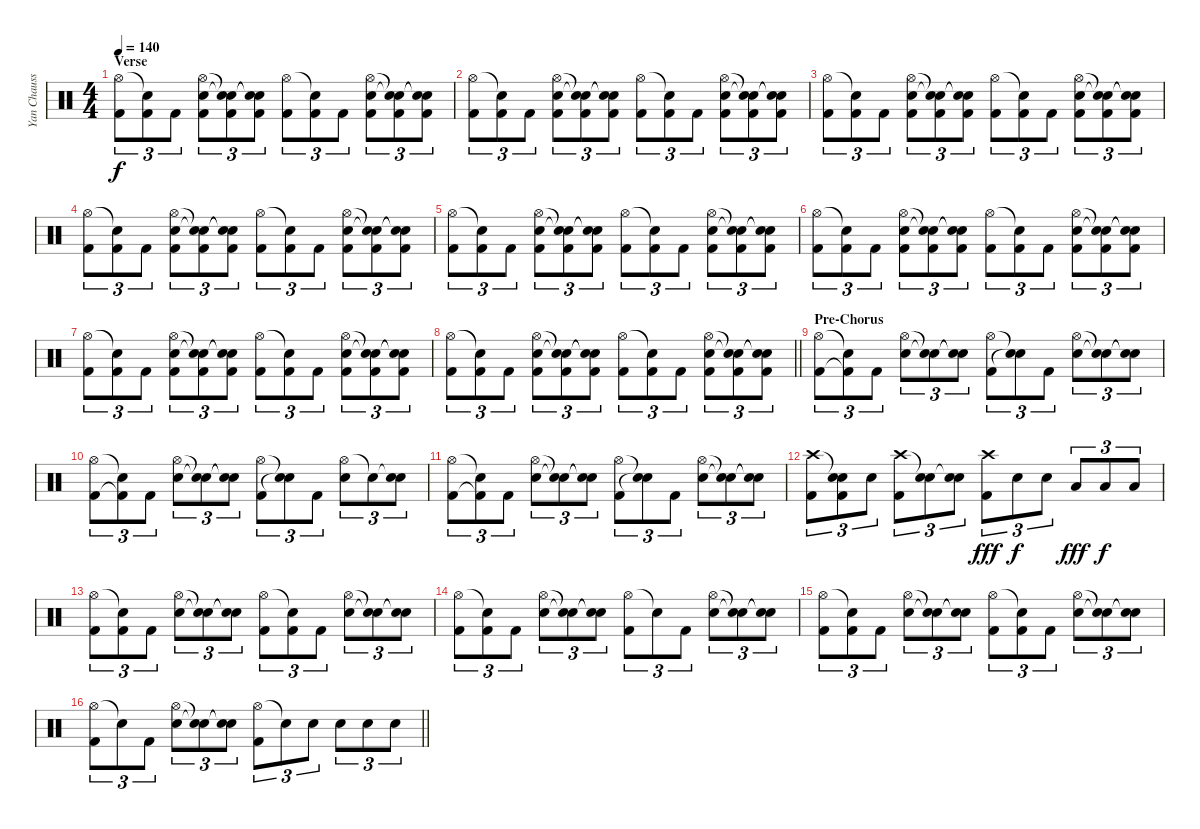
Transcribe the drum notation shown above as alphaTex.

\track ("Yan Chausse" "Yan Chauss") {instrument percussion}
\staff {score}
\articulation defaults
\ts (4 4)
\section ("" "Verse")
\tempo 140
\clef neutral
\ks c
("Hi-Hat (open)" "Kick (hit) 2").8{tu (3 2) dy f} ("Snare (hit)"{t} "Kick (hit) 2").8{tu (3 2)} "Kick (hit) 2".8{tu (3 2)} ("Hi-Hat (open)" "Snare (hit) 2" "Kick (hit) 2").8{tu (3 2)} ("Snare (hit)"{t} "Snare (hit)"{t} "Kick (hit) 2").8{tu (3 2)} ("Snare (hit)"{t} "Snare (hit)"{t} "Kick (hit) 2").8{tu (3 2)} ("Hi-Hat (open)" "Kick (hit) 2").8{tu (3 2)} ("Snare (hit)"{t} "Kick (hit) 2").8{tu (3 2)} "Kick (hit) 2".8{tu (3 2)} ("Hi-Hat (open)" "Snare (hit) 2" "Kick (hit) 2").8{tu (3 2)} ("Snare (hit)"{t} "Snare (hit)"{t} "Kick (hit) 2").8{tu (3 2)} ("Snare (hit)"{t} "Snare (hit)"{t} "Kick (hit) 2").8{tu (3 2)} |
("Hi-Hat (open)" "Kick (hit) 2").8{tu (3 2)} ("Snare (hit)"{t} "Kick (hit) 2").8{tu (3 2)} "Kick (hit) 2".8{tu (3 2)} ("Hi-Hat (open)" "Snare (hit) 2" "Kick (hit) 2").8{tu (3 2)} ("Snare (hit)"{t} "Snare (hit)"{t} "Kick (hit) 2").8{tu (3 2)} ("Snare (hit)"{t} "Snare (hit)"{t} "Kick (hit) 2").8{tu (3 2)} ("Hi-Hat (open)" "Kick (hit) 2").8{tu (3 2)} ("Snare (hit)"{t} "Kick (hit) 2").8{tu (3 2)} "Kick (hit) 2".8{tu (3 2)} ("Hi-Hat (open)" "Snare (hit) 2" "Kick (hit) 2").8{tu (3 2)} ("Snare (hit)"{t} "Snare (hit)"{t} "Kick (hit) 2").8{tu (3 2)} ("Snare (hit)"{t} "Snare (hit)"{t} "Kick (hit) 2").8{tu (3 2)} |
("Hi-Hat (open)" "Kick (hit) 2").8{tu (3 2)} ("Snare (hit)"{t} "Kick (hit) 2").8{tu (3 2)} "Kick (hit) 2".8{tu (3 2)} ("Hi-Hat (open)" "Snare (hit) 2" "Kick (hit) 2").8{tu (3 2)} ("Snare (hit)"{t} "Snare (hit)"{t} "Kick (hit) 2").8{tu (3 2)} ("Snare (hit)"{t} "Snare (hit)"{t} "Kick (hit) 2").8{tu (3 2)} ("Hi-Hat (open)" "Kick (hit) 2").8{tu (3 2)} ("Snare (hit)"{t} "Kick (hit) 2").8{tu (3 2)} "Kick (hit) 2".8{tu (3 2)} ("Hi-Hat (open)" "Snare (hit) 2" "Kick (hit) 2").8{tu (3 2)} ("Snare (hit)"{t} "Snare (hit)"{t} "Kick (hit) 2").8{tu (3 2)} ("Snare (hit)"{t} "Snare (hit)"{t} "Kick (hit) 2").8{tu (3 2)} |
("Hi-Hat (open)" "Kick (hit) 2").8{tu (3 2)} ("Snare (hit)"{t} "Kick (hit) 2").8{tu (3 2)} "Kick (hit) 2".8{tu (3 2)} ("Hi-Hat (open)" "Snare (hit) 2" "Kick (hit) 2").8{tu (3 2)} ("Snare (hit)"{t} "Snare (hit)"{t} "Kick (hit) 2").8{tu (3 2)} ("Snare (hit)"{t} "Snare (hit)"{t} "Kick (hit) 2").8{tu (3 2)} ("Hi-Hat (open)" "Kick (hit) 2").8{tu (3 2)} ("Snare (hit)"{t} "Kick (hit) 2").8{tu (3 2)} "Kick (hit) 2".8{tu (3 2)} ("Hi-Hat (open)" "Snare (hit) 2" "Kick (hit) 2").8{tu (3 2)} ("Snare (hit)"{t} "Snare (hit)"{t} "Kick (hit) 2").8{tu (3 2)} ("Snare (hit)"{t} "Snare (hit)"{t} "Kick (hit) 2").8{tu (3 2)} |
("Hi-Hat (open)" "Kick (hit) 2").8{tu (3 2)} ("Snare (hit)"{t} "Kick (hit) 2").8{tu (3 2)} "Kick (hit) 2".8{tu (3 2)} ("Hi-Hat (open)" "Snare (hit) 2" "Kick (hit) 2").8{tu (3 2)} ("Snare (hit)"{t} "Snare (hit)"{t} "Kick (hit) 2").8{tu (3 2)} ("Snare (hit)"{t} "Snare (hit)"{t} "Kick (hit) 2").8{tu (3 2)} ("Hi-Hat (open)" "Kick (hit) 2").8{tu (3 2)} ("Snare (hit)"{t} "Kick (hit) 2").8{tu (3 2)} "Kick (hit) 2".8{tu (3 2)} ("Hi-Hat (open)" "Snare (hit) 2" "Kick (hit) 2").8{tu (3 2)} ("Snare (hit)"{t} "Snare (hit)"{t} "Kick (hit) 2").8{tu (3 2)} ("Snare (hit)"{t} "Snare (hit)"{t} "Kick (hit) 2").8{tu (3 2)} |
("Hi-Hat (open)" "Kick (hit) 2").8{tu (3 2)} ("Snare (hit)"{t} "Kick (hit) 2").8{tu (3 2)} "Kick (hit) 2".8{tu (3 2)} ("Hi-Hat (open)" "Snare (hit) 2" "Kick (hit) 2").8{tu (3 2)} ("Snare (hit)"{t} "Snare (hit)"{t} "Kick (hit) 2").8{tu (3 2)} ("Snare (hit)"{t} "Snare (hit)"{t} "Kick (hit) 2").8{tu (3 2)} ("Hi-Hat (open)" "Kick (hit) 2").8{tu (3 2)} ("Snare (hit)"{t} "Kick (hit) 2").8{tu (3 2)} "Kick (hit) 2".8{tu (3 2)} ("Hi-Hat (open)" "Snare (hit) 2" "Kick (hit) 2").8{tu (3 2)} ("Snare (hit)"{t} "Snare (hit)"{t} "Kick (hit) 2").8{tu (3 2)} ("Snare (hit)"{t} "Snare (hit)"{t} "Kick (hit) 2").8{tu (3 2)} |
("Hi-Hat (open)" "Kick (hit) 2").8{tu (3 2)} ("Snare (hit)"{t} "Kick (hit) 2").8{tu (3 2)} "Kick (hit) 2".8{tu (3 2)} ("Hi-Hat (open)" "Snare (hit) 2" "Kick (hit) 2").8{tu (3 2)} ("Snare (hit)"{t} "Snare (hit)"{t} "Kick (hit) 2").8{tu (3 2)} ("Snare (hit)"{t} "Snare (hit)"{t} "Kick (hit) 2").8{tu (3 2)} ("Hi-Hat (open)" "Kick (hit) 2").8{tu (3 2)} ("Snare (hit)"{t} "Kick (hit) 2").8{tu (3 2)} "Kick (hit) 2".8{tu (3 2)} ("Hi-Hat (open)" "Snare (hit) 2" "Kick (hit) 2").8{tu (3 2)} ("Snare (hit)"{t} "Snare (hit)"{t} "Kick (hit) 2").8{tu (3 2)} ("Snare (hit)"{t} "Snare (hit)"{t} "Kick (hit) 2").8{tu (3 2)} |
\barLineRight lightlight
("Hi-Hat (open)" "Kick (hit) 2").8{tu (3 2)} ("Snare (hit)"{t} "Kick (hit) 2").8{tu (3 2)} "Kick (hit) 2".8{tu (3 2)} ("Hi-Hat (open)" "Snare (hit) 2" "Kick (hit) 2").8{tu (3 2)} ("Snare (hit)"{t} "Snare (hit)"{t} "Kick (hit) 2").8{tu (3 2)} ("Snare (hit)"{t} "Snare (hit)"{t} "Kick (hit) 2").8{tu (3 2)} ("Hi-Hat (open)" "Kick (hit) 2").8{tu (3 2)} ("Snare (hit)"{t} "Kick (hit) 2").8{tu (3 2)} "Kick (hit) 2".8{tu (3 2)} ("Hi-Hat (open)" "Snare (hit) 2" "Kick (hit) 2").8{tu (3 2)} ("Snare (hit)"{t} "Snare (hit)"{t} "Kick (hit) 2").8{tu (3 2)} ("Snare (hit)"{t} "Snare (hit)"{t} "Kick (hit) 2").8{tu (3 2)} |
\section ("" "Pre-Chorus")
("Hi-Hat (open)" "Kick (hit) 2").8{tu (3 2)} ("Snare (hit)"{t} "Kick (hit) 2"{t}).8{tu (3 2)} "Kick (hit) 2".8{tu (3 2)} ("Hi-Hat (open)" "Snare (hit) 2").8{tu (3 2)} ("Snare (hit)"{t} "Snare (hit)"{t}).8{tu (3 2)} ("Snare (hit)"{t} "Snare (hit)"{t}).8{tu (3 2)} ("Hi-Hat (open)" "Kick (hit) 2").8{tu (3 2)} ("Snare (hit)"{t} "Snare (hit)"{t}).8{tu (3 2)} "Kick (hit) 2".8{tu (3 2)} ("Hi-Hat (open)" "Snare (hit) 2").8{tu (3 2)} ("Snare (hit)"{t} "Snare (hit)"{t}).8{tu (3 2)} ("Snare (hit)"{t} "Snare (hit)"{t}).8{tu (3 2)} |
("Hi-Hat (open)" "Kick (hit) 2").8{tu (3 2)} ("Snare (hit)"{t} "Kick (hit) 2"{t}).8{tu (3 2)} "Kick (hit) 2".8{tu (3 2)} ("Hi-Hat (open)" "Snare (hit) 2").8{tu (3 2)} ("Snare (hit)"{t} "Snare (hit)"{t}).8{tu (3 2)} ("Snare (hit)"{t} "Snare (hit)"{t}).8{tu (3 2)} ("Hi-Hat (open)" "Kick (hit) 2").8{tu (3 2)} ("Snare (hit)"{t} "Snare (hit)"{t}).8{tu (3 2)} "Kick (hit) 2".8{tu (3 2)} ("Hi-Hat (open)" "Snare (hit) 2").8{tu (3 2)} "Snare (hit)"{t}.8{tu (3 2)} ("Snare (hit)"{t} "Snare (hit) 2").8{tu (3 2)} |
("Hi-Hat (open)" "Kick (hit) 2").8{tu (3 2)} ("Snare (hit)"{t} "Kick (hit) 2"{t}).8{tu (3 2)} "Kick (hit) 2".8{tu (3 2)} ("Hi-Hat (open)" "Snare (hit) 2").8{tu (3 2)} ("Snare (hit)"{t} "Snare (hit)"{t}).8{tu (3 2)} ("Snare (hit)"{t} "Snare (hit)"{t}).8{tu (3 2)} ("Hi-Hat (open)" "Kick (hit) 2").8{tu (3 2)} ("Snare (hit)"{t} "Snare (hit)"{t}).8{tu (3 2)} "Kick (hit) 2".8{tu (3 2)} ("Hi-Hat (open)" "Snare (hit) 2").8{tu (3 2)} ("Snare (hit)"{t} "Snare (hit)"{t}).8{tu (3 2)} ("Snare (hit)"{t} "Snare (hit)"{t}).8{tu (3 2)} |
("Crash high (hit)" "Kick (hit) 2").8{tu (3 2)} ("Snare (hit)"{t} "Snare (hit) 2" "Kick (hit) 2").8{tu (3 2)} "Snare (hit) 2".8{tu (3 2)} ("Crash high (hit)" "Kick (hit) 2").8{tu (3 2)} ("Snare (hit)"{t} "Snare (hit) 2").8{tu (3 2)} ("Snare (hit)"{t} "Snare (hit) 2").8{tu (3 2)} ("Crash high (hit)" "Kick (hit) 2").8{tu (3 2) dy fff} "Snare (hit) 2".8{tu (3 2) dy f} "Snare (hit) 2".8{tu (3 2)} "Low Tom (hit)".8{tu (3 2) dy fff} "Low Tom (hit)".8{tu (3 2) dy f} "Low Tom (hit)".8{tu (3 2)} |
("Hi-Hat (open)" "Kick (hit) 2").8{tu (3 2)} ("Snare (hit)"{t} "Kick (hit) 2").8{tu (3 2)} "Kick (hit) 2".8{tu (3 2)} ("Hi-Hat (open)" "Snare (hit) 2").8{tu (3 2)} ("Snare (hit)"{t} "Snare (hit)"{t}).8{tu (3 2)} ("Snare (hit)"{t} "Snare (hit)"{t}).8{tu (3 2)} ("Hi-Hat (open)" "Kick (hit) 2").8{tu (3 2)} ("Snare (hit)"{t} "Kick (hit) 2").8{tu (3 2)} "Kick (hit) 2".8{tu (3 2)} ("Hi-Hat (open)" "Snare (hit) 2").8{tu (3 2)} ("Snare (hit)"{t} "Snare (hit)"{t}).8{tu (3 2)} ("Snare (hit)"{t} "Snare (hit)"{t}).8{tu (3 2)} |
("Hi-Hat (open)" "Kick (hit) 2").8{tu (3 2)} ("Snare (hit)"{t} "Kick (hit) 2").8{tu (3 2)} "Kick (hit) 2".8{tu (3 2)} ("Hi-Hat (open)" "Snare (hit) 2").8{tu (3 2)} ("Snare (hit)"{t} "Snare (hit)"{t}).8{tu (3 2)} ("Snare (hit)"{t} "Snare (hit)"{t}).8{tu (3 2)} ("Hi-Hat (open)" "Kick (hit) 2").8{tu (3 2)} "Snare (hit)"{t}.8{tu (3 2)} "Kick (hit) 2".8{tu (3 2)} ("Hi-Hat (open)" "Snare (hit) 2").8{tu (3 2)} ("Snare (hit)"{t} "Snare (hit)"{t}).8{tu (3 2)} ("Snare (hit)"{t} "Snare (hit)"{t}).8{tu (3 2)} |
("Hi-Hat (open)" "Kick (hit) 2").8{tu (3 2)} ("Snare (hit)"{t} "Kick (hit) 2").8{tu (3 2)} "Kick (hit) 2".8{tu (3 2)} ("Hi-Hat (open)" "Snare (hit) 2").8{tu (3 2)} ("Snare (hit)"{t} "Snare (hit)"{t}).8{tu (3 2)} ("Snare (hit)"{t} "Snare (hit)"{t}).8{tu (3 2)} ("Hi-Hat (open)" "Kick (hit) 2").8{tu (3 2)} ("Snare (hit)"{t} "Kick (hit) 2").8{tu (3 2)} "Kick (hit) 2".8{tu (3 2)} ("Hi-Hat (open)" "Snare (hit) 2").8{tu (3 2)} ("Snare (hit)"{t} "Snare (hit)"{t}).8{tu (3 2)} ("Snare (hit)"{t} "Snare (hit)"{t}).8{tu (3 2)} |
\barLineRight lightlight
("Hi-Hat (open)" "Kick (hit) 2").8{tu (3 2)} "Snare (hit)"{t}.8{tu (3 2)} "Kick (hit) 2".8{tu (3 2)} ("Hi-Hat (open)" "Snare (hit) 2").8{tu (3 2)} ("Snare (hit)"{t} "Snare (hit)"{t}).8{tu (3 2)} ("Snare (hit)"{t} "Snare (hit)"{t}).8{tu (3 2)} ("Hi-Hat (open)" "Kick (hit) 2").8{tu (3 2)} "Snare (hit)"{t}.8{tu (3 2)} "Snare (hit) 2".8{tu (3 2)} "Snare (hit) 2".8{tu (3 2)} "Snare (hit) 2".8{tu (3 2)} "Snare (hit) 2".8{tu (3 2)}
